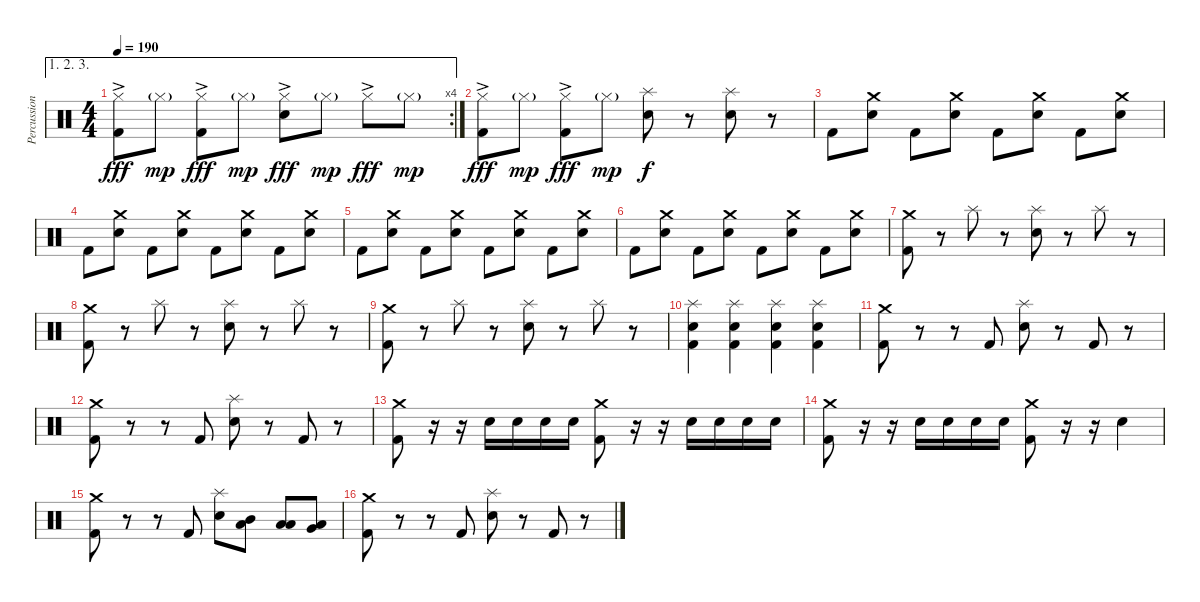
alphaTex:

\track ("Percussion" "Percussion") {instrument percussion}
\staff {score}
\articulation defaults
\ae (1 2 3)
\rc 4
\ts (4 4)
\tempo 190
\clef neutral
\ks c
("Hi-Hat (closed)"{ac} "Kick (hit) 2").8{dy fff} "Hi-Hat (closed)"{g}.8{dy mp} ("Hi-Hat (closed)"{ac} "Kick (hit) 2").8{dy fff} "Hi-Hat (closed)"{g}.8{dy mp} ("Hi-Hat (closed)"{ac} "Electric Snare (hit)").8{dy fff} "Hi-Hat (closed)"{g}.8{dy mp} "Hi-Hat (closed)"{ac}.8{dy fff} "Hi-Hat (closed)"{g}.8{dy mp} |
("Hi-Hat (closed)"{ac} "Kick (hit) 2").8{dy fff} "Hi-Hat (closed)"{g}.8{dy mp} ("Hi-Hat (closed)"{ac} "Kick (hit) 2").8{dy fff} "Hi-Hat (closed)"{g}.8{dy mp} ("Splash (hit)" "Electric Snare (hit)").8{dy f} r.8 ("Splash (hit)" "Electric Snare (hit)").8 r.8 |
"Kick (hit) 2".8 ("Crash medium (hit)" "Electric Snare (hit)").8 "Kick (hit) 2".8 ("Crash medium (hit)" "Electric Snare (hit)").8 "Kick (hit) 2".8 ("Crash medium (hit)" "Electric Snare (hit)").8 "Kick (hit) 2".8 ("Crash medium (hit)" "Electric Snare (hit)").8 |
"Kick (hit) 2".8 ("Crash medium (hit)" "Electric Snare (hit)").8 "Kick (hit) 2".8 ("Crash medium (hit)" "Electric Snare (hit)").8 "Kick (hit) 2".8 ("Crash medium (hit)" "Electric Snare (hit)").8 "Kick (hit) 2".8 ("Crash medium (hit)" "Electric Snare (hit)").8 |
"Kick (hit) 2".8 ("Crash medium (hit)" "Electric Snare (hit)").8 "Kick (hit) 2".8 ("Crash medium (hit)" "Electric Snare (hit)").8 "Kick (hit) 2".8 ("Crash medium (hit)" "Electric Snare (hit)").8 "Kick (hit) 2".8 ("Crash medium (hit)" "Electric Snare (hit)").8 |
"Kick (hit) 2".8 ("Crash medium (hit)" "Electric Snare (hit)").8 "Kick (hit) 2".8 ("Crash medium (hit)" "Electric Snare (hit)").8 "Kick (hit) 2".8 ("Crash medium (hit)" "Electric Snare (hit)").8 "Kick (hit) 2".8 ("Crash medium (hit)" "Electric Snare (hit)").8 |
("Crash medium (hit)" "Kick (hit) 2").8 r.8 "Splash (hit)".8 r.8 ("Splash (hit)" "Electric Snare (hit)").8 r.8 "Splash (hit)".8 r.8 |
("Crash medium (hit)" "Kick (hit) 2").8 r.8 "Splash (hit)".8 r.8 ("Splash (hit)" "Electric Snare (hit)").8 r.8 "Splash (hit)".8 r.8 |
("Crash medium (hit)" "Kick (hit) 2").8 r.8 "Splash (hit)".8 r.8 ("Splash (hit)" "Electric Snare (hit)").8 r.8 "Splash (hit)".8 r.8 |
("Splash (hit)" "Electric Snare (hit)" "Kick (hit) 2").4 ("Splash (hit)" "Electric Snare (hit)" "Kick (hit) 2").4 ("Splash (hit)" "Electric Snare (hit)" "Kick (hit) 2").4 ("Splash (hit)" "Electric Snare (hit)" "Kick (hit) 2").4 |
("Crash medium (hit)" "Kick (hit) 2").8 r.8 r.8 "Kick (hit) 2".8 ("Splash (hit)" "Electric Snare (hit)").8 r.8 "Kick (hit) 2".8 r.8 |
("Crash medium (hit)" "Kick (hit) 2").8 r.8 r.8 "Kick (hit) 2".8 ("Splash (hit)" "Electric Snare (hit)").8 r.8 "Kick (hit) 2".8 r.8 |
("Crash medium (hit)" "Kick (hit) 2").8 r.16 r.16 "Electric Snare (hit)".16 "Electric Snare (hit)".16 "Electric Snare (hit)".16 "Electric Snare (hit)".16 ("Crash medium (hit)" "Kick (hit) 2").8 r.16 r.16 "Electric Snare (hit)".16 "Electric Snare (hit)".16 "Electric Snare (hit)".16 "Electric Snare (hit)".16 |
("Crash medium (hit)" "Kick (hit) 2").8 r.16 r.16 "Electric Snare (hit)".16 "Electric Snare (hit)".16 "Electric Snare (hit)".16 "Electric Snare (hit)".16 ("Crash medium (hit)" "Kick (hit) 2").8 r.16 r.16 "Electric Snare (hit)".4 |
("Crash medium (hit)" "Kick (hit) 2").8 r.8 r.8 "Kick (hit) 2".8 ("Splash (hit)" "Electric Snare (hit)").8 ("Mid Tom (hit)" "Low Floor Tom (hit)").8 ("Low Tom (hit)" "Low Floor Tom (hit)").8 ("Very Low Tom (hit)" "Low Floor Tom (hit)").8 |
("Crash medium (hit)" "Kick (hit) 2").8 r.8 r.8 "Kick (hit) 2".8 ("Splash (hit)" "Electric Snare (hit)").8 r.8 "Kick (hit) 2".8 r.8
